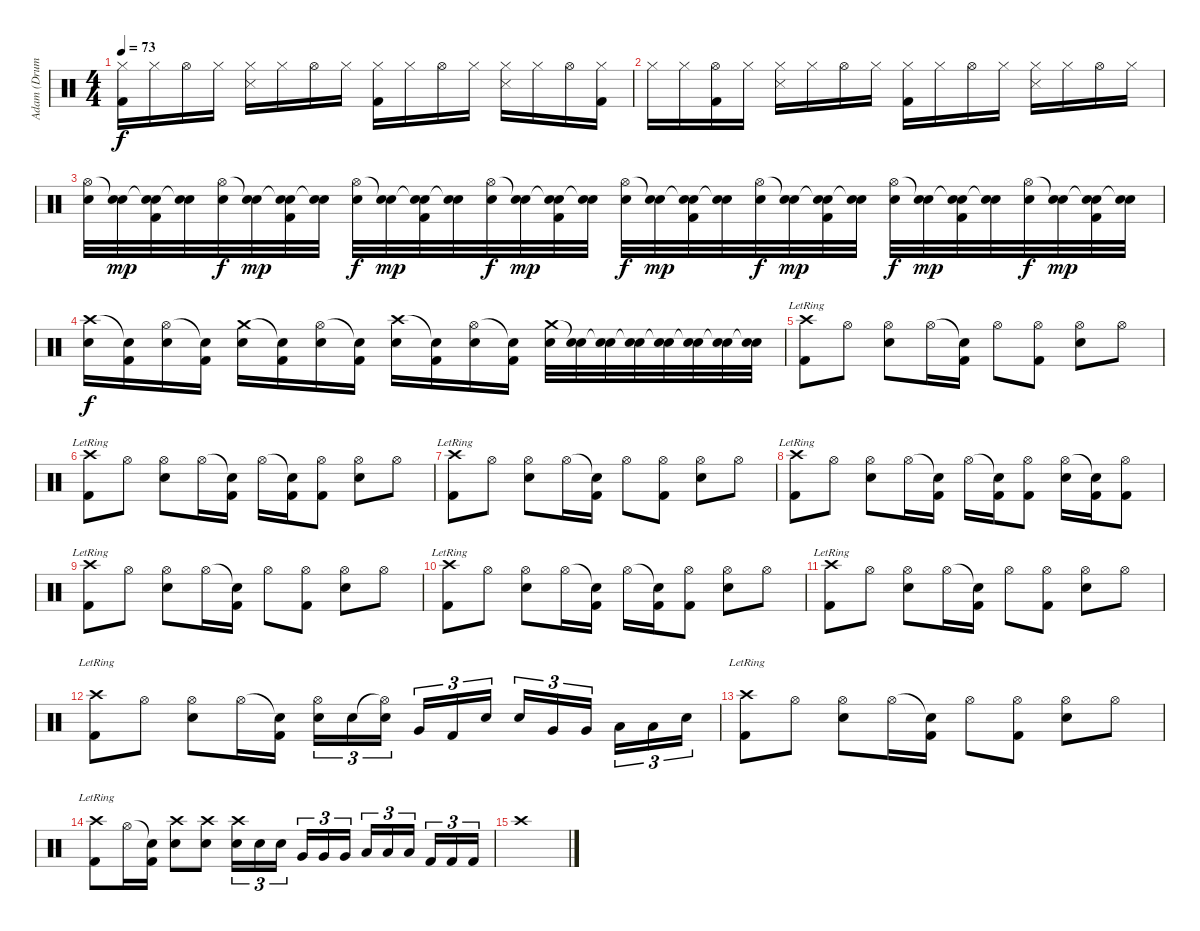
\track ("Adam (Drums)" "Adam (Drum") {instrument percussion}
\staff {score}
\articulation defaults
\ts (4 4)
\tempo 73
\clef neutral
\ks c
("Hi-Hat (closed)" "Kick (hit) 2").16{dy f} "Hi-Hat (closed)".16 "Hi-Hat (open)".16 "Hi-Hat (closed)".16 ("Hi-Hat (closed)" "Snare (side stick) 3").16 "Hi-Hat (closed)".16 "Hi-Hat (open)".16 "Hi-Hat (closed)".16 ("Hi-Hat (closed)" "Kick (hit) 2").16 "Hi-Hat (closed)".16 "Hi-Hat (open)".16 "Hi-Hat (closed)".16 ("Hi-Hat (closed)" "Snare (side stick) 3").16 "Hi-Hat (closed)".16 "Hi-Hat (open)".16 ("Hi-Hat (closed)" "Kick (hit) 2").16 |
"Hi-Hat (closed)".16 "Hi-Hat (closed)".16 ("Hi-Hat (open)" "Kick (hit) 2").16 "Hi-Hat (closed)".16 ("Hi-Hat (closed)" "Snare (side stick) 3").16 "Hi-Hat (closed)".16 "Hi-Hat (open)".16 "Hi-Hat (closed)".16 ("Hi-Hat (closed)" "Kick (hit) 2").16 "Hi-Hat (closed)".16 "Hi-Hat (open)".16 "Hi-Hat (closed)".16 ("Hi-Hat (closed)" "Snare (side stick) 3").16 "Hi-Hat (closed)".16 "Hi-Hat (open)".16 "Hi-Hat (closed)".16 |
("Hi-Hat (open)" "Electric Snare (hit)").32 ("Snare (hit)"{t} "Electric Snare (hit)").32{dy mp} ("Snare (hit)"{t} "Electric Snare (hit)" "Kick (hit) 2").32 ("Snare (hit)"{t} "Electric Snare (hit)").32 ("Hi-Hat (open)" "Electric Snare (hit)").32{dy f} ("Snare (hit)"{t} "Electric Snare (hit)").32{dy mp} ("Snare (hit)"{t} "Electric Snare (hit)" "Kick (hit) 2").32 ("Snare (hit)"{t} "Electric Snare (hit)").32 ("Hi-Hat (open)" "Electric Snare (hit)").32{dy f} ("Snare (hit)"{t} "Electric Snare (hit)").32{dy mp} ("Snare (hit)"{t} "Electric Snare (hit)" "Kick (hit) 2").32 ("Snare (hit)"{t} "Electric Snare (hit)").32 ("Hi-Hat (open)" "Electric Snare (hit)").32{dy f} ("Snare (hit)"{t} "Electric Snare (hit)").32{dy mp} ("Snare (hit)"{t} "Electric Snare (hit)" "Kick (hit) 2").32 ("Snare (hit)"{t} "Electric Snare (hit)").32 ("Hi-Hat (open)" "Electric Snare (hit)").32{dy f} ("Snare (hit)"{t} "Electric Snare (hit)").32{dy mp} ("Snare (hit)"{t} "Electric Snare (hit)" "Kick (hit) 2").32 ("Snare (hit)"{t} "Electric Snare (hit)").32 ("Hi-Hat (open)" "Electric Snare (hit)").32{dy f} ("Snare (hit)"{t} "Electric Snare (hit)").32{dy mp} ("Snare (hit)"{t} "Electric Snare (hit)" "Kick (hit) 2").32 ("Snare (hit)"{t} "Electric Snare (hit)").32 ("Hi-Hat (open)" "Electric Snare (hit)").32{dy f} ("Snare (hit)"{t} "Electric Snare (hit)").32{dy mp} ("Snare (hit)"{t} "Electric Snare (hit)" "Kick (hit) 2").32 ("Snare (hit)"{t} "Electric Snare (hit)").32 ("Hi-Hat (open)" "Electric Snare (hit)").32{dy f} ("Snare (hit)"{t} "Electric Snare (hit)").32{dy mp} ("Snare (hit)"{t} "Electric Snare (hit)" "Kick (hit) 2").32 ("Snare (hit)"{t} "Electric Snare (hit)").32 |
("Crash high (hit)" "Electric Snare (hit)").16{dy f} ("Snare (hit)"{t} "Kick (hit) 2").16 ("Hi-Hat (open)" "Electric Snare (hit)").16 ("Snare (hit)"{t} "Kick (hit) 2").16 ("Crash medium (hit)" "Electric Snare (hit)").16 ("Snare (hit)"{t} "Kick (hit) 2").16 ("Hi-Hat (open)" "Electric Snare (hit)").16 ("Snare (hit)"{t} "Kick (hit) 2").16 ("Crash high (hit)" "Electric Snare (hit)").16 ("Snare (hit)"{t} "Kick (hit) 2").16 ("Hi-Hat (open)" "Electric Snare (hit)").16 ("Snare (hit)"{t} "Kick (hit) 2").16 ("Crash medium (hit)" "Electric Snare (hit)").32 ("Snare (hit)"{t} "Electric Snare (hit)").32 ("Snare (hit)"{t} "Electric Snare (hit)").32 ("Snare (hit)"{t} "Electric Snare (hit)").32 ("Snare (hit)"{t} "Electric Snare (hit)").32 ("Snare (hit)"{t} "Electric Snare (hit)").32 ("Snare (hit)"{t} "Electric Snare (hit)").32 ("Snare (hit)"{t} "Electric Snare (hit)").32 |
("Crash high (hit)"{lr} "Kick (hit) 2").8 "Hi-Hat (open)".8 ("Hi-Hat (open)" "Electric Snare (hit)").8 "Hi-Hat (open)".16 ("Snare (hit)"{t} "Kick (hit) 2").16 "Hi-Hat (open)".8 ("Hi-Hat (open)" "Kick (hit) 2").8 ("Hi-Hat (open)" "Electric Snare (hit)").8 "Hi-Hat (open)".8 |
("Crash high (hit)"{lr} "Kick (hit) 2").8 "Hi-Hat (open)".8 ("Hi-Hat (open)" "Electric Snare (hit)").8 "Hi-Hat (open)".16 ("Snare (hit)"{t} "Kick (hit) 2").16 "Hi-Hat (open)".16 ("Snare (hit)"{t} "Kick (hit) 2").16 ("Hi-Hat (open)" "Kick (hit) 2").8 ("Hi-Hat (open)" "Electric Snare (hit)").8 "Hi-Hat (open)".8 |
("Crash high (hit)"{lr} "Kick (hit) 2").8 "Hi-Hat (open)".8 ("Hi-Hat (open)" "Electric Snare (hit)").8 "Hi-Hat (open)".16 ("Snare (hit)"{t} "Kick (hit) 2").16 "Hi-Hat (open)".8 ("Hi-Hat (open)" "Kick (hit) 2").8 ("Hi-Hat (open)" "Electric Snare (hit)").8 "Hi-Hat (open)".8 |
("Crash high (hit)"{lr} "Kick (hit) 2").8 "Hi-Hat (open)".8 ("Hi-Hat (open)" "Electric Snare (hit)").8 "Hi-Hat (open)".16 ("Snare (hit)"{t} "Kick (hit) 2").16 "Hi-Hat (open)".16 ("Snare (hit)"{t} "Kick (hit) 2").16 ("Hi-Hat (open)" "Kick (hit) 2").8 ("Hi-Hat (open)" "Electric Snare (hit)").16 ("Snare (hit)"{t} "Kick (hit) 2").16 ("Hi-Hat (open)" "Kick (hit) 2").8 |
("Crash high (hit)"{lr} "Kick (hit) 2").8 "Hi-Hat (open)".8 ("Hi-Hat (open)" "Electric Snare (hit)").8 "Hi-Hat (open)".16 ("Snare (hit)"{t} "Kick (hit) 2").16 "Hi-Hat (open)".8 ("Hi-Hat (open)" "Kick (hit) 2").8 ("Hi-Hat (open)" "Electric Snare (hit)").8 "Hi-Hat (open)".8 |
("Crash high (hit)"{lr} "Kick (hit) 2").8 "Hi-Hat (open)".8 ("Hi-Hat (open)" "Electric Snare (hit)").8 "Hi-Hat (open)".16 ("Snare (hit)"{t} "Kick (hit) 2").16 "Hi-Hat (open)".16 ("Snare (hit)"{t} "Kick (hit) 2").16 ("Hi-Hat (open)" "Kick (hit) 2").8 ("Hi-Hat (open)" "Electric Snare (hit)").8 "Hi-Hat (open)".8 |
("Crash high (hit)"{lr} "Kick (hit) 2").8 "Hi-Hat (open)".8 ("Hi-Hat (open)" "Electric Snare (hit)").8 "Hi-Hat (open)".16 ("Snare (hit)"{t} "Kick (hit) 2").16 "Hi-Hat (open)".8 ("Hi-Hat (open)" "Kick (hit) 2").8 ("Hi-Hat (open)" "Electric Snare (hit)").8 "Hi-Hat (open)".8 |
("Crash high (hit)"{lr} "Kick (hit) 2").8 "Hi-Hat (open)".8 ("Hi-Hat (open)" "Electric Snare (hit)").8 "Hi-Hat (open)".16 ("Snare (hit)"{t} "Kick (hit) 2").16 ("Hi-Hat (open)" "Electric Snare (hit)").16{tu (3 2)} "Electric Snare (hit)".16{tu (3 2)} ("Hi-Hat (open)"{t} "Electric Snare (hit)").16{tu (3 2)} "Very Low Tom (hit)".16{tu (3 2)} "Kick (hit) 2".16{tu (3 2)} "Electric Snare (hit)".16{tu (3 2)} "Electric Snare (hit)".16{tu (3 2)} "Very Low Tom (hit)".16{tu (3 2)} "Very Low Tom (hit)".16{tu (3 2)} "Low Floor Tom (hit)".16{tu (3 2)} "Low Floor Tom (hit)".16{tu (3 2)} "Electric Snare (hit)".16{tu (3 2)} |
("Crash high (hit)"{lr} "Kick (hit) 2").8 "Hi-Hat (open)".8 ("Hi-Hat (open)" "Electric Snare (hit)").8 "Hi-Hat (open)".16 ("Snare (hit)"{t} "Kick (hit) 2").16 "Hi-Hat (open)".8 ("Hi-Hat (open)" "Kick (hit) 2").8 ("Hi-Hat (open)" "Electric Snare (hit)").8 "Hi-Hat (open)".8 |
("Crash high (hit)"{lr} "Kick (hit) 2").8 "Hi-Hat (open)".16 ("Snare (hit)"{t} "Kick (hit) 2").16 ("Crash high (hit)" "Electric Snare (hit)").8 ("Crash high (hit)" "Electric Snare (hit)").8 ("Crash high (hit)" "Electric Snare (hit)").16{tu (3 2)} "Electric Snare (hit)".16{tu (3 2)} "Electric Snare (hit)".16{tu (3 2)} "Very Low Tom (hit)".16{tu (3 2)} "Very Low Tom (hit)".16{tu (3 2)} "Very Low Tom (hit)".16{tu (3 2)} "Low Floor Tom (hit)".16{tu (3 2)} "Low Floor Tom (hit)".16{tu (3 2)} "Low Floor Tom (hit)".16{tu (3 2)} "Kick (hit) 2".16{tu (3 2)} "Kick (hit) 2".16{tu (3 2)} "Kick (hit) 2".16{tu (3 2)} |
"Crash high (hit)".1
